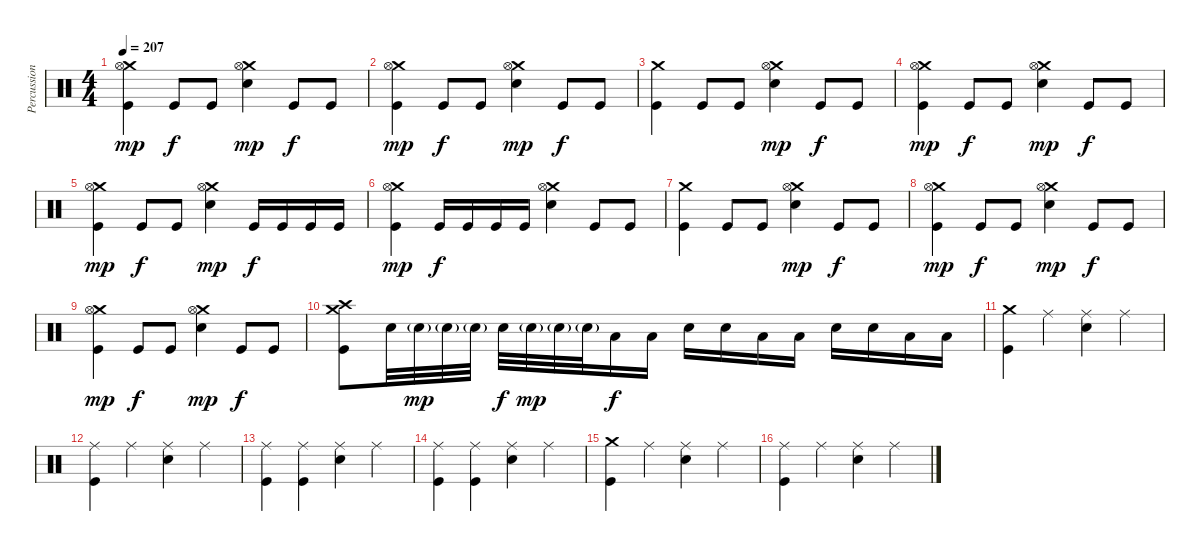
\track ("Percussion" "Percussion") {instrument percussion}
\staff {score}
\articulation defaults
\ts (4 4)
\tempo 207
\clef neutral
\ks c
("Crash medium (hit)" "Hi-Hat (open)" "Kick (hit)").4{dy mp} "Kick (hit)".8{dy f} "Kick (hit)".8 ("Crash medium (hit)" "Hi-Hat (open)" "Electric Snare (hit)").4{dy mp} "Kick (hit)".8{dy f} "Kick (hit)".8 |
("Crash medium (hit)" "Hi-Hat (open)" "Kick (hit)").4{dy mp} "Kick (hit)".8{dy f} "Kick (hit)".8 ("Crash medium (hit)" "Hi-Hat (open)" "Electric Snare (hit)").4{dy mp} "Kick (hit)".8{dy f} "Kick (hit)".8 |
("Crash medium (hit)" "Kick (hit)").4 "Kick (hit)".8 "Kick (hit)".8 ("Crash medium (hit)" "Hi-Hat (open)" "Electric Snare (hit)").4{dy mp} "Kick (hit)".8{dy f} "Kick (hit)".8 |
("Crash medium (hit)" "Hi-Hat (open)" "Kick (hit)").4{dy mp} "Kick (hit)".8{dy f} "Kick (hit)".8 ("Crash medium (hit)" "Hi-Hat (open)" "Electric Snare (hit)").4{dy mp} "Kick (hit)".8{dy f} "Kick (hit)".8 |
("Crash medium (hit)" "Hi-Hat (open)" "Kick (hit)").4{dy mp} "Kick (hit)".8{dy f} "Kick (hit)".8 ("Crash medium (hit)" "Hi-Hat (open)" "Electric Snare (hit)").4{dy mp} "Kick (hit)".16{dy f} "Kick (hit)".16 "Kick (hit)".16 "Kick (hit)".16 |
("Crash medium (hit)" "Hi-Hat (open)" "Kick (hit)").4{dy mp} "Kick (hit)".16{dy f} "Kick (hit)".16 "Kick (hit)".16 "Kick (hit)".16 ("Crash medium (hit)" "Hi-Hat (open)" "Electric Snare (hit)").4 "Kick (hit)".8 "Kick (hit)".8 |
("Crash medium (hit)" "Kick (hit)").4 "Kick (hit)".8 "Kick (hit)".8 ("Crash medium (hit)" "Hi-Hat (open)" "Electric Snare (hit)").4{dy mp} "Kick (hit)".8{dy f} "Kick (hit)".8 |
("Crash medium (hit)" "Hi-Hat (open)" "Kick (hit)").4{dy mp} "Kick (hit)".8{dy f} "Kick (hit)".8 ("Crash medium (hit)" "Hi-Hat (open)" "Electric Snare (hit)").4{dy mp} "Kick (hit)".8{dy f} "Kick (hit)".8 |
("Crash medium (hit)" "Hi-Hat (open)" "Kick (hit)").4{dy mp} "Kick (hit)".8{dy f} "Kick (hit)".8 ("Crash medium (hit)" "Hi-Hat (open)" "Electric Snare (hit)").4{dy mp} "Kick (hit)".8{dy f} "Kick (hit)".8 |
("Crash medium (hit)" "Crash high (hit)" "Kick (hit)").8 "Electric Snare (hit)".32 "Electric Snare (hit)"{g}.32{dy mp} "Electric Snare (hit)"{g}.32 "Electric Snare (hit)"{g}.32 "Electric Snare (hit)".32{dy f} "Electric Snare (hit)"{g}.32{dy mp} "Electric Snare (hit)"{g}.32 "Electric Snare (hit)"{g}.32 "Low Tom (hit)".16{dy f} "Low Tom (hit)".16 "Electric Snare (hit)".16 "Electric Snare (hit)".16 "Low Tom (hit)".16 "Low Tom (hit)".16 "Electric Snare (hit)".16 "Electric Snare (hit)".16 "Low Tom (hit)".16 "Low Tom (hit)".16 |
("Crash medium (hit)" "Kick (hit)").4 "Ride (middle)".4 ("Electric Snare (hit)" "Ride (middle)").4 "Ride (middle)".4 |
("Ride (middle)" "Kick (hit)").4 "Ride (middle)".4 ("Electric Snare (hit)" "Ride (middle)").4 "Ride (middle)".4 |
("Ride (middle)" "Kick (hit)").4 ("Ride (middle)" "Kick (hit)").4 ("Electric Snare (hit)" "Ride (middle)").4 "Ride (middle)".4 |
("Ride (middle)" "Kick (hit)").4 ("Ride (middle)" "Kick (hit)").4 ("Electric Snare (hit)" "Ride (middle)").4 "Ride (middle)".4 |
("Crash medium (hit)" "Kick (hit)").4 "Ride (middle)".4 ("Electric Snare (hit)" "Ride (middle)").4 "Ride (middle)".4 |
("Ride (middle)" "Kick (hit)").4 "Ride (middle)".4 ("Electric Snare (hit)" "Ride (middle)").4 "Ride (middle)".4
